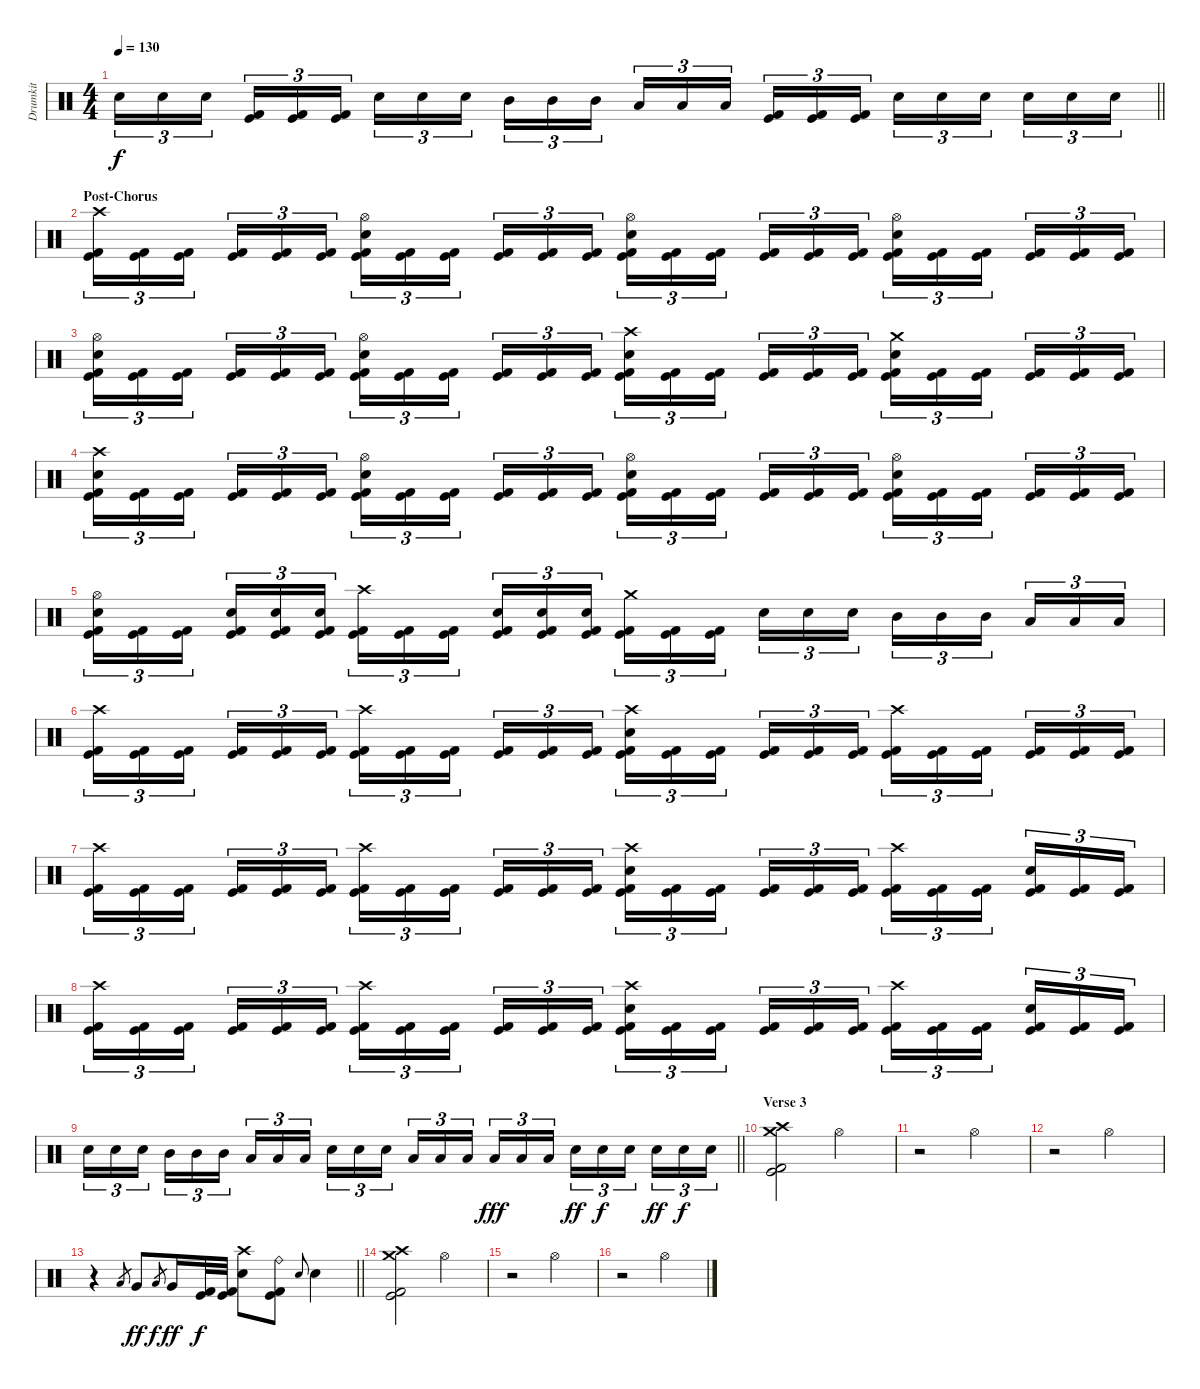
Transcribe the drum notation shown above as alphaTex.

\track ("Drumkit" "Drumkit") {instrument percussion}
\staff {score}
\articulation defaults
\ts (4 4)
\tempo 130
\clef neutral
\barLineRight lightlight
\ks c "Electric Snare (hit)".16{tu (3 2) dy f} "Electric Snare (hit)".16{tu (3 2)} "Electric Snare (hit)".16{tu (3 2) beam splitsecondary}
("Kick (hit)" "Kick (hit) 2").16{tu (3 2)} ("Kick (hit)" "Kick (hit) 2").16{tu (3 2)} ("Kick (hit)" "Kick (hit) 2").16{tu (3 2)} "Electric Snare (hit)".16{tu (3 2)} "Electric Snare (hit)".16{tu (3 2)} "Electric Snare (hit)".16{tu (3 2) beam splitsecondary} "Mid Tom (hit)".16{tu (3 2)} "Mid Tom (hit)".16{tu (3 2)} "Mid Tom (hit)".16{tu (3 2)} "Low Tom (hit)".16{tu (3 2)} "Low Tom (hit)".16{tu (3 2)} "Low Tom (hit)".16{tu (3 2) beam splitsecondary} ("Kick (hit)" "Kick (hit) 2").16{tu (3 2)} ("Kick (hit)" "Kick (hit) 2").16{tu (3 2)} ("Kick (hit)" "Kick (hit) 2").16{tu (3 2)} "Electric Snare (hit)".16{tu (3 2)} "Electric Snare (hit)".16{tu (3 2)} "Electric Snare (hit)".16{tu (3 2) beam splitsecondary} "Electric Snare (hit)".16{tu (3 2)} "Electric Snare (hit)".16{tu (3 2)} "Electric Snare (hit)".16{tu (3 2)} |
\section ("" "Post-Chorus")
("Crash high (hit)" "Kick (hit)" "Kick (hit) 2").16{tu (3 2)} ("Kick (hit)" "Kick (hit) 2").16{tu (3 2)} ("Kick (hit)" "Kick (hit) 2").16{tu (3 2) beam splitsecondary} ("Kick (hit)" "Kick (hit) 2").16{tu (3 2)} ("Kick (hit)" "Kick (hit) 2").16{tu (3 2)} ("Kick (hit)" "Kick (hit) 2").16{tu (3 2)} ("Hi-Hat (open)" "Electric Snare (hit)" "Kick (hit)" "Kick (hit) 2").16{tu (3 2)} ("Kick (hit)" "Kick (hit) 2").16{tu (3 2)} ("Kick (hit)" "Kick (hit) 2").16{tu (3 2) beam splitsecondary} ("Kick (hit)" "Kick (hit) 2").16{tu (3 2)} ("Kick (hit)" "Kick (hit) 2").16{tu (3 2)} ("Kick (hit)" "Kick (hit) 2").16{tu (3 2)} ("Hi-Hat (open)" "Electric Snare (hit)" "Kick (hit)" "Kick (hit) 2").16{tu (3 2)} ("Kick (hit)" "Kick (hit) 2").16{tu (3 2)} ("Kick (hit)" "Kick (hit) 2").16{tu (3 2) beam splitsecondary} ("Kick (hit)" "Kick (hit) 2").16{tu (3 2)} ("Kick (hit)" "Kick (hit) 2").16{tu (3 2)} ("Kick (hit)" "Kick (hit) 2").16{tu (3 2)} ("Hi-Hat (open)" "Electric Snare (hit)" "Kick (hit)" "Kick (hit) 2").16{tu (3 2)} ("Kick (hit)" "Kick (hit) 2").16{tu (3 2)} ("Kick (hit)" "Kick (hit) 2").16{tu (3 2) beam splitsecondary} ("Kick (hit)" "Kick (hit) 2").16{tu (3 2)} ("Kick (hit)" "Kick (hit) 2").16{tu (3 2)} ("Kick (hit)" "Kick (hit) 2").16{tu (3 2)} |
("Hi-Hat (open)" "Electric Snare (hit)" "Kick (hit)" "Kick (hit) 2").16{tu (3 2)} ("Kick (hit)" "Kick (hit) 2").16{tu (3 2)} ("Kick (hit)" "Kick (hit) 2").16{tu (3 2) beam splitsecondary} ("Kick (hit)" "Kick (hit) 2").16{tu (3 2)} ("Kick (hit)" "Kick (hit) 2").16{tu (3 2)} ("Kick (hit)" "Kick (hit) 2").16{tu (3 2)} ("Hi-Hat (open)" "Electric Snare (hit)" "Kick (hit)" "Kick (hit) 2").16{tu (3 2)} ("Kick (hit)" "Kick (hit) 2").16{tu (3 2)} ("Kick (hit)" "Kick (hit) 2").16{tu (3 2) beam splitsecondary} ("Kick (hit)" "Kick (hit) 2").16{tu (3 2)} ("Kick (hit)" "Kick (hit) 2").16{tu (3 2)} ("Kick (hit)" "Kick (hit) 2").16{tu (3 2)} ("Crash high (hit)" "Electric Snare (hit)" "Kick (hit)" "Kick (hit) 2").16{tu (3 2)} ("Kick (hit)" "Kick (hit) 2").16{tu (3 2)} ("Kick (hit)" "Kick (hit) 2").16{tu (3 2) beam splitsecondary} ("Kick (hit)" "Kick (hit) 2").16{tu (3 2)} ("Kick (hit)" "Kick (hit) 2").16{tu (3 2)} ("Kick (hit)" "Kick (hit) 2").16{tu (3 2)} ("Crash medium (hit)" "Electric Snare (hit)" "Kick (hit)" "Kick (hit) 2").16{tu (3 2)} ("Kick (hit)" "Kick (hit) 2").16{tu (3 2)} ("Kick (hit)" "Kick (hit) 2").16{tu (3 2) beam splitsecondary} ("Kick (hit)" "Kick (hit) 2").16{tu (3 2)} ("Kick (hit)" "Kick (hit) 2").16{tu (3 2)} ("Kick (hit)" "Kick (hit) 2").16{tu (3 2)} |
("Crash high (hit)" "Electric Snare (hit)" "Kick (hit)" "Kick (hit) 2").16{tu (3 2)} ("Kick (hit)" "Kick (hit) 2").16{tu (3 2)} ("Kick (hit)" "Kick (hit) 2").16{tu (3 2) beam splitsecondary} ("Kick (hit)" "Kick (hit) 2").16{tu (3 2)} ("Kick (hit)" "Kick (hit) 2").16{tu (3 2)} ("Kick (hit)" "Kick (hit) 2").16{tu (3 2)} ("Hi-Hat (open)" "Electric Snare (hit)" "Kick (hit)" "Kick (hit) 2").16{tu (3 2)} ("Kick (hit)" "Kick (hit) 2").16{tu (3 2)} ("Kick (hit)" "Kick (hit) 2").16{tu (3 2) beam splitsecondary} ("Kick (hit)" "Kick (hit) 2").16{tu (3 2)} ("Kick (hit)" "Kick (hit) 2").16{tu (3 2)} ("Kick (hit)" "Kick (hit) 2").16{tu (3 2)} ("Hi-Hat (open)" "Electric Snare (hit)" "Kick (hit)" "Kick (hit) 2").16{tu (3 2)} ("Kick (hit)" "Kick (hit) 2").16{tu (3 2)} ("Kick (hit)" "Kick (hit) 2").16{tu (3 2) beam splitsecondary} ("Kick (hit)" "Kick (hit) 2").16{tu (3 2)} ("Kick (hit)" "Kick (hit) 2").16{tu (3 2)} ("Kick (hit)" "Kick (hit) 2").16{tu (3 2)} ("Hi-Hat (open)" "Electric Snare (hit)" "Kick (hit)" "Kick (hit) 2").16{tu (3 2)} ("Kick (hit)" "Kick (hit) 2").16{tu (3 2)} ("Kick (hit)" "Kick (hit) 2").16{tu (3 2) beam splitsecondary} ("Kick (hit)" "Kick (hit) 2").16{tu (3 2)} ("Kick (hit)" "Kick (hit) 2").16{tu (3 2)} ("Kick (hit)" "Kick (hit) 2").16{tu (3 2)} |
("Hi-Hat (open)" "Electric Snare (hit)" "Kick (hit)" "Kick (hit) 2").16{tu (3 2)} ("Kick (hit)" "Kick (hit) 2").16{tu (3 2)} ("Kick (hit)" "Kick (hit) 2").16{tu (3 2) beam splitsecondary} ("Electric Snare (hit)" "Kick (hit)" "Kick (hit) 2").16{tu (3 2)} ("Electric Snare (hit)" "Kick (hit)" "Kick (hit) 2").16{tu (3 2)} ("Electric Snare (hit)" "Kick (hit)" "Kick (hit) 2").16{tu (3 2)} ("Crash high (hit)" "Kick (hit)" "Kick (hit) 2").16{tu (3 2)} ("Kick (hit)" "Kick (hit) 2").16{tu (3 2)} ("Kick (hit)" "Kick (hit) 2").16{tu (3 2) beam splitsecondary} ("Electric Snare (hit)" "Kick (hit)" "Kick (hit) 2").16{tu (3 2)} ("Electric Snare (hit)" "Kick (hit)" "Kick (hit) 2").16{tu (3 2)} ("Electric Snare (hit)" "Kick (hit)" "Kick (hit) 2").16{tu (3 2)} ("Crash medium (hit)" "Kick (hit)" "Kick (hit) 2").16{tu (3 2)} ("Kick (hit)" "Kick (hit) 2").16{tu (3 2)} ("Kick (hit)" "Kick (hit) 2").16{tu (3 2) beam splitsecondary} "Electric Snare (hit)".16{tu (3 2)} "Electric Snare (hit)".16{tu (3 2)} "Electric Snare (hit)".16{tu (3 2)} "Mid Tom (hit)".16{tu (3 2)} "Mid Tom (hit)".16{tu (3 2)} "Mid Tom (hit)".16{tu (3 2) beam splitsecondary} "Low Tom (hit)".16{tu (3 2)} "Low Tom (hit)".16{tu (3 2)} "Low Tom (hit)".16{tu (3 2)} |
("Crash high (hit)" "Kick (hit)" "Kick (hit) 2").16{tu (3 2)} ("Kick (hit)" "Kick (hit) 2").16{tu (3 2)} ("Kick (hit)" "Kick (hit) 2").16{tu (3 2) beam splitsecondary} ("Kick (hit)" "Kick (hit) 2").16{tu (3 2)} ("Kick (hit)" "Kick (hit) 2").16{tu (3 2)} ("Kick (hit)" "Kick (hit) 2").16{tu (3 2)} ("Crash high (hit)" "Kick (hit)" "Kick (hit) 2").16{tu (3 2)} ("Kick (hit)" "Kick (hit) 2").16{tu (3 2)} ("Kick (hit)" "Kick (hit) 2").16{tu (3 2) beam splitsecondary} ("Kick (hit)" "Kick (hit) 2").16{tu (3 2)} ("Kick (hit)" "Kick (hit) 2").16{tu (3 2)} ("Kick (hit)" "Kick (hit) 2").16{tu (3 2)} ("Crash high (hit)" "Electric Snare (hit)" "Kick (hit)" "Kick (hit) 2").16{tu (3 2)} ("Kick (hit)" "Kick (hit) 2").16{tu (3 2)} ("Kick (hit)" "Kick (hit) 2").16{tu (3 2) beam splitsecondary} ("Kick (hit)" "Kick (hit) 2").16{tu (3 2)} ("Kick (hit)" "Kick (hit) 2").16{tu (3 2)} ("Kick (hit)" "Kick (hit) 2").16{tu (3 2)} ("Crash high (hit)" "Kick (hit)" "Kick (hit) 2").16{tu (3 2)} ("Kick (hit)" "Kick (hit) 2").16{tu (3 2)} ("Kick (hit)" "Kick (hit) 2").16{tu (3 2) beam splitsecondary} ("Kick (hit)" "Kick (hit) 2").16{tu (3 2)} ("Kick (hit)" "Kick (hit) 2").16{tu (3 2)} ("Kick (hit)" "Kick (hit) 2").16{tu (3 2)} |
("Crash high (hit)" "Kick (hit)" "Kick (hit) 2").16{tu (3 2)} ("Kick (hit)" "Kick (hit) 2").16{tu (3 2)} ("Kick (hit)" "Kick (hit) 2").16{tu (3 2) beam splitsecondary} ("Kick (hit)" "Kick (hit) 2").16{tu (3 2)} ("Kick (hit)" "Kick (hit) 2").16{tu (3 2)} ("Kick (hit)" "Kick (hit) 2").16{tu (3 2)} ("Crash high (hit)" "Kick (hit)" "Kick (hit) 2").16{tu (3 2)} ("Kick (hit)" "Kick (hit) 2").16{tu (3 2)} ("Kick (hit)" "Kick (hit) 2").16{tu (3 2) beam splitsecondary} ("Kick (hit)" "Kick (hit) 2").16{tu (3 2)} ("Kick (hit)" "Kick (hit) 2").16{tu (3 2)} ("Kick (hit)" "Kick (hit) 2").16{tu (3 2)} ("Crash high (hit)" "Electric Snare (hit)" "Kick (hit)" "Kick (hit) 2").16{tu (3 2)} ("Kick (hit)" "Kick (hit) 2").16{tu (3 2)} ("Kick (hit)" "Kick (hit) 2").16{tu (3 2) beam splitsecondary} ("Kick (hit)" "Kick (hit) 2").16{tu (3 2)} ("Kick (hit)" "Kick (hit) 2").16{tu (3 2)} ("Kick (hit)" "Kick (hit) 2").16{tu (3 2)} ("Crash high (hit)" "Kick (hit)" "Kick (hit) 2").16{tu (3 2)} ("Kick (hit)" "Kick (hit) 2").16{tu (3 2)} ("Kick (hit)" "Kick (hit) 2").16{tu (3 2) beam splitsecondary} ("Electric Snare (hit)" "Kick (hit)" "Kick (hit) 2").16{tu (3 2)} ("Kick (hit)" "Kick (hit) 2").16{tu (3 2)} ("Kick (hit)" "Kick (hit) 2").16{tu (3 2)} |
("Crash high (hit)" "Kick (hit)" "Kick (hit) 2").16{tu (3 2)} ("Kick (hit)" "Kick (hit) 2").16{tu (3 2)} ("Kick (hit)" "Kick (hit) 2").16{tu (3 2) beam splitsecondary} ("Kick (hit)" "Kick (hit) 2").16{tu (3 2)} ("Kick (hit)" "Kick (hit) 2").16{tu (3 2)} ("Kick (hit)" "Kick (hit) 2").16{tu (3 2)} ("Crash high (hit)" "Kick (hit)" "Kick (hit) 2").16{tu (3 2)} ("Kick (hit)" "Kick (hit) 2").16{tu (3 2)} ("Kick (hit)" "Kick (hit) 2").16{tu (3 2) beam splitsecondary} ("Kick (hit)" "Kick (hit) 2").16{tu (3 2)} ("Kick (hit)" "Kick (hit) 2").16{tu (3 2)} ("Kick (hit)" "Kick (hit) 2").16{tu (3 2)} ("Crash high (hit)" "Electric Snare (hit)" "Kick (hit)" "Kick (hit) 2").16{tu (3 2)} ("Kick (hit)" "Kick (hit) 2").16{tu (3 2)} ("Kick (hit)" "Kick (hit) 2").16{tu (3 2) beam splitsecondary} ("Kick (hit)" "Kick (hit) 2").16{tu (3 2)} ("Kick (hit)" "Kick (hit) 2").16{tu (3 2)} ("Kick (hit)" "Kick (hit) 2").16{tu (3 2)} ("Crash high (hit)" "Kick (hit)" "Kick (hit) 2").16{tu (3 2)} ("Kick (hit)" "Kick (hit) 2").16{tu (3 2)} ("Kick (hit)" "Kick (hit) 2").16{tu (3 2) beam splitsecondary} ("Electric Snare (hit)" "Kick (hit)" "Kick (hit) 2").16{tu (3 2)} ("Kick (hit)" "Kick (hit) 2").16{tu (3 2)} ("Kick (hit)" "Kick (hit) 2").16{tu (3 2)} |
\barLineRight lightlight "Electric Snare (hit)".16{tu (3 2)} "Electric Snare (hit)".16{tu (3 2)} "Electric Snare (hit)".16{tu (3 2) beam splitsecondary} "Mid Tom (hit)".16{tu (3 2)} "Mid Tom (hit)".16{tu (3 2)} "Mid Tom (hit)".16{tu (3 2)} "Low Tom (hit)".16{tu (3 2)} "Low Tom (hit)".16{tu (3 2)} "Low Tom (hit)".16{tu (3 2) beam splitsecondary} "Electric Snare (hit)".16{tu (3 2)} "Electric Snare (hit)".16{tu (3 2)} "Electric Snare (hit)".16{tu (3 2)} "Low Tom (hit)".16{tu (3 2)} "Low Tom (hit)".16{tu (3 2)} "Low Tom (hit)".16{tu (3 2) beam splitsecondary} "Low Floor Tom (hit)".16{tu (3 2) dy fff} "Low Floor Tom (hit)".16{tu (3 2)} "Low Floor Tom (hit)".16{tu (3 2)} "Electric Snare (hit)".16{tu (3 2) dy ff} "Electric Snare (hit)".16{tu (3 2) dy f} "Electric Snare (hit)".16{tu (3 2) beam splitsecondary} "Electric Snare (hit)".16{tu (3 2) dy ff} "Electric Snare (hit)".16{tu (3 2) dy f} "Electric Snare (hit)".16{tu (3 2)}
|
\section ("" "Verse 3")
("Crash high (hit)" "Crash medium (hit)" "Kick (hit)" "Kick (hit) 2").2 "Hi-Hat (open)".2 |
r.2 "Hi-Hat (open)".2 |
r.2 "Hi-Hat (open)".2 |
\barLineRight lightlight
r.4 "Low Tom (hit)".8{gr} "Very Low Tom (hit)".8{dy ff} "Low Tom (hit)".8{gr dy f} "Very Low Tom (hit)".16{dy ff} ("Kick (hit)" "Kick (hit) 2").32{dy f} ("Kick (hit)" "Kick (hit) 2").32 ("Crash high (hit)" "Electric Snare (hit)").8 ("Ride (bell)" "Kick (hit)" "Kick (hit) 2").8 "Electric Snare (hit)".8{gr onbeat} "Electric Snare (hit)".4 |
("Crash high (hit)" "Crash medium (hit)" "Kick (hit)" "Kick (hit) 2").2 "Hi-Hat (open)".2 |
r.2 "Hi-Hat (open)".2 |
r.2 "Hi-Hat (open)".2
